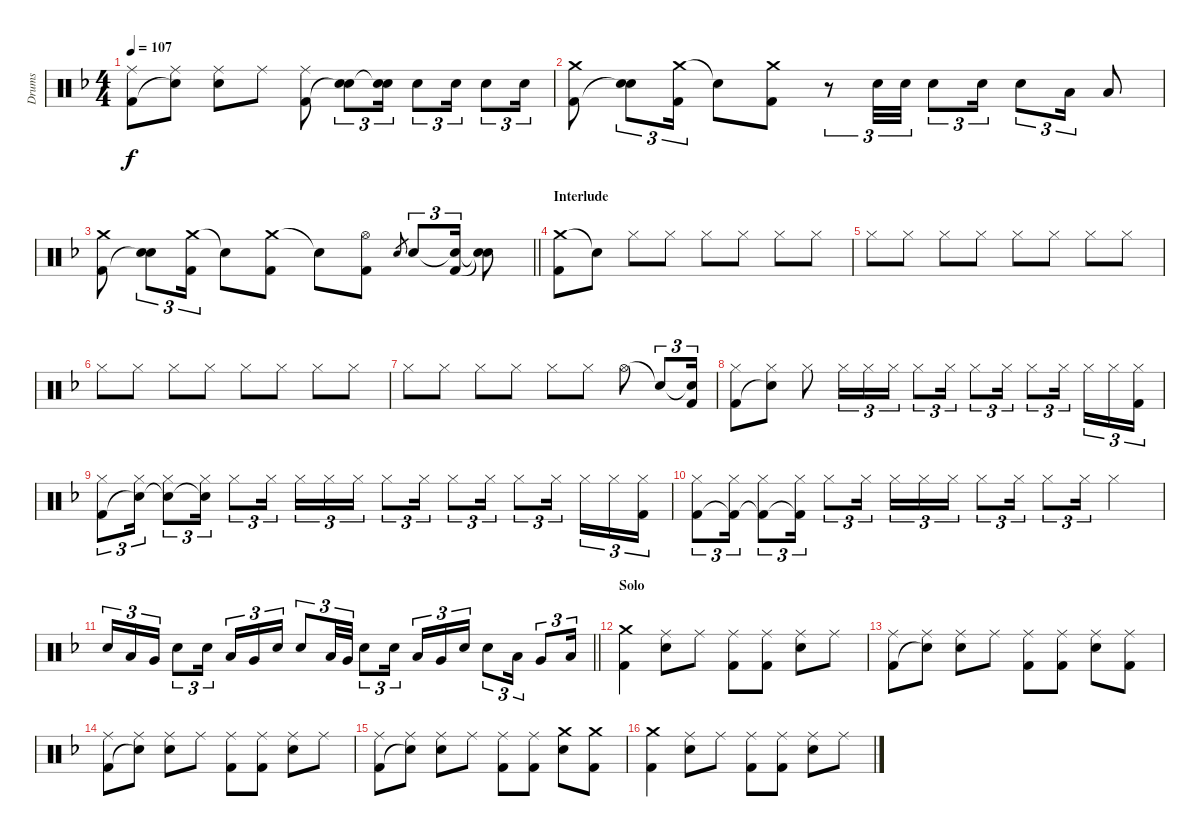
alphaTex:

\track ("Drums" "Drums") {instrument percussion}
\staff {score}
\articulation defaults
\ts (4 4)
\tempo 107
\clef neutral
\ks dminor
("Ride (middle)" "Kick (hit) 2").8{dy f} ("Ride (middle)" "Snare (hit)"{t}).8 ("Ride (middle)" "Electric Snare (hit)").8 "Ride (middle)".8 ("Ride (middle)" "Kick (hit) 2").8 ("Electric Snare (hit)" "Snare (hit)"{t}).8{tu (3 2)} ("Electric Snare (hit)" "Snare (hit)"{t}).16{tu (3 2)} "Electric Snare (hit)".8{tu (3 2)} "Electric Snare (hit)".16{tu (3 2)} "Electric Snare (hit)".8{tu (3 2)} "Electric Snare (hit)".16{tu (3 2)} |
("Crash medium (hit)" "Kick (hit) 2").8 ("Electric Snare (hit)" "Snare (hit)"{t}).8{tu (3 2)} ("Crash medium (hit)" "Kick (hit) 2").16{tu (3 2)} "Snare (hit)"{t}.8 ("Crash medium (hit)" "Kick (hit) 2").8 r.8{tu (3 2)} "Electric Snare (hit)".32{tu (3 2)} "Electric Snare (hit)".32{tu (3 2)} "Electric Snare (hit)".8{tu (3 2)} "Electric Snare (hit)".16{tu (3 2)} "Electric Snare (hit)".8{tu (3 2)} "Low Tom (hit)".16{tu (3 2)} "Low Floor Tom (hit)".8 |
\barLineRight lightlight
("Crash medium (hit)" "Kick (hit) 2").8 ("Electric Snare (hit)" "Snare (hit)"{t}).8{tu (3 2)} ("Crash medium (hit)" "Kick (hit) 2").16{tu (3 2)} "Snare (hit)"{t}.8 ("Crash medium (hit)" "Kick (hit) 2").8 "Snare (hit)"{t}.8 ("Hi-Hat (open)" "Kick (hit) 2").8 "Electric Snare (hit)".8{gr} "Electric Snare (hit)".8{tu (3 2)} ("Snare (hit)"{t} "Kick (hit) 2").16{tu (3 2)} ("Snare (hit)"{t} "Snare (hit)"{t}).8 |
\section ("" "Interlude")
("Crash medium (hit)" "Kick (hit) 2").8 "Snare (hit)"{t}.8 "Hi-Hat (closed)".8 "Hi-Hat (closed)".8 "Hi-Hat (closed)".8 "Hi-Hat (closed)".8 "Hi-Hat (closed)".8 "Hi-Hat (closed)".8 |
"Hi-Hat (closed)".8 "Hi-Hat (closed)".8 "Hi-Hat (closed)".8 "Hi-Hat (closed)".8 "Hi-Hat (closed)".8 "Hi-Hat (closed)".8 "Hi-Hat (closed)".8 "Hi-Hat (closed)".8 |
"Hi-Hat (closed)".8 "Hi-Hat (closed)".8 "Hi-Hat (closed)".8 "Hi-Hat (closed)".8 "Hi-Hat (closed)".8 "Hi-Hat (closed)".8 "Hi-Hat (closed)".8 "Hi-Hat (closed)".8 |
"Hi-Hat (closed)".8 "Hi-Hat (closed)".8 "Hi-Hat (closed)".8 "Hi-Hat (closed)".8 "Hi-Hat (closed)".8 "Hi-Hat (closed)".8 "Hi-Hat (open)".8 "Snare (hit)"{t}.8{tu (3 2)} ("Snare (hit)"{t} "Kick (hit) 2").16{tu (3 2)} |
("Hi-Hat (closed)" "Kick (hit) 2").8 ("Hi-Hat (closed)" "Snare (hit)"{t}).8 "Hi-Hat (closed)".8 "Hi-Hat (closed)".16{tu (3 2)} "Hi-Hat (closed)".16{tu (3 2)} "Hi-Hat (closed)".16{tu (3 2)} "Hi-Hat (closed)".8{tu (3 2)} "Hi-Hat (closed)".16{tu (3 2)} "Hi-Hat (closed)".8{tu (3 2)} "Hi-Hat (closed)".16{tu (3 2)} "Hi-Hat (closed)".8{tu (3 2)} "Hi-Hat (closed)".16{tu (3 2)} "Hi-Hat (closed)".16{tu (3 2)} "Hi-Hat (closed)".16{tu (3 2)} ("Hi-Hat (closed)" "Kick (hit) 2").16{tu (3 2)} |
("Hi-Hat (closed)" "Kick (hit) 2").8{tu (3 2)} ("Hi-Hat (closed)" "Snare (hit)"{t}).16{tu (3 2)} ("Hi-Hat (closed)" "Snare (hit)"{t}).8{tu (3 2)} ("Hi-Hat (closed)" "Snare (hit)"{t}).16{tu (3 2)} "Hi-Hat (closed)".8{tu (3 2)} "Hi-Hat (closed)".16{tu (3 2)} "Hi-Hat (closed)".16{tu (3 2)} "Hi-Hat (closed)".16{tu (3 2)} "Hi-Hat (closed)".16{tu (3 2)} "Hi-Hat (closed)".8{tu (3 2)} "Hi-Hat (closed)".16{tu (3 2)} "Hi-Hat (closed)".8{tu (3 2)} "Hi-Hat (closed)".16{tu (3 2)} "Hi-Hat (closed)".8{tu (3 2)} "Hi-Hat (closed)".16{tu (3 2)} "Hi-Hat (closed)".16{tu (3 2)} "Hi-Hat (closed)".16{tu (3 2)} ("Hi-Hat (closed)" "Kick (hit) 2").16{tu (3 2)} |
("Hi-Hat (closed)" "Kick (hit) 2").8{tu (3 2)} ("Hi-Hat (closed)" "Kick (hit) 2"{t}).16{tu (3 2)} ("Hi-Hat (closed)" "Kick (hit) 2"{t}).8{tu (3 2)} ("Hi-Hat (closed)" "Kick (hit) 2"{t}).16{tu (3 2)} "Hi-Hat (closed)".8{tu (3 2)} "Hi-Hat (closed)".16{tu (3 2)} "Hi-Hat (closed)".16{tu (3 2)} "Hi-Hat (closed)".16{tu (3 2)} "Hi-Hat (closed)".16{tu (3 2)} "Hi-Hat (closed)".8{tu (3 2)} "Hi-Hat (closed)".16{tu (3 2)} "Hi-Hat (closed)".8{tu (3 2)} "Hi-Hat (closed)".16{tu (3 2)} "Hi-Hat (closed)".4 |
\barLineRight lightlight "Electric Snare (hit)".16{tu (3 2)} "Low Tom (hit)".16{tu (3 2)} "Very Low Tom (hit)".16{tu (3 2)} "Electric Snare (hit)".8{tu (3 2)} "Electric Snare (hit)".16{tu (3 2)} "Low Tom (hit)".16{tu (3 2)} "Very Low Tom (hit)".16{tu (3 2)} "Electric Snare (hit)".16{tu (3 2)} "Electric Snare (hit)".8{tu (3 2)} "Low Tom (hit)".32{tu (3 2)} "Very Low Tom (hit)".32{tu (3 2)} "Electric Snare (hit)".8{tu (3 2)} "Electric Snare (hit)".16{tu (3 2)} "Low Tom (hit)".16{tu (3 2)} "Very Low Tom (hit)".16{tu (3 2)} "Electric Snare (hit)".16{tu (3 2)} "Electric Snare (hit)".8{tu (3 2)} "Low Tom (hit)".16{tu (3 2)} "Very Low Tom (hit)".8{tu (3 2)} "Low Floor Tom (hit)".16{tu (3 2)}
|
\section ("" "Solo")
("Crash medium (hit)" "Kick (hit) 2").4 ("Ride (middle)" "Electric Snare (hit)").8 "Ride (middle)".8 ("Ride (middle)" "Kick (hit) 2").8 ("Ride (middle)" "Kick (hit) 2").8 ("Ride (middle)" "Electric Snare (hit)").8 "Ride (middle)".8 |
("Ride (middle)" "Kick (hit) 2").8 ("Ride (middle)" "Snare (hit)"{t}).8 ("Ride (middle)" "Electric Snare (hit)").8 "Ride (middle)".8 ("Ride (middle)" "Kick (hit) 2").8 ("Ride (middle)" "Kick (hit) 2").8 ("Ride (middle)" "Electric Snare (hit)").8 ("Ride (middle)" "Kick (hit) 2").8 |
("Ride (middle)" "Kick (hit) 2").8 ("Ride (middle)" "Snare (hit)"{t}).8 ("Ride (middle)" "Electric Snare (hit)").8 "Ride (middle)".8 ("Ride (middle)" "Kick (hit) 2").8 ("Ride (middle)" "Kick (hit) 2").8 ("Ride (middle)" "Electric Snare (hit)").8 "Ride (middle)".8 |
("Ride (middle)" "Kick (hit) 2").8 ("Ride (middle)" "Snare (hit)"{t}).8 ("Ride (middle)" "Electric Snare (hit)").8 "Ride (middle)".8 ("Ride (middle)" "Kick (hit) 2").8 ("Ride (middle)" "Kick (hit) 2").8 ("Crash medium (hit)" "Electric Snare (hit)").8 ("Crash medium (hit)" "Kick (hit) 2").8 |
("Crash medium (hit)" "Kick (hit) 2").4 ("Ride (middle)" "Electric Snare (hit)").8 "Ride (middle)".8 ("Ride (middle)" "Kick (hit) 2").8 ("Ride (middle)" "Kick (hit) 2").8 ("Ride (middle)" "Electric Snare (hit)").8 "Ride (middle)".8
